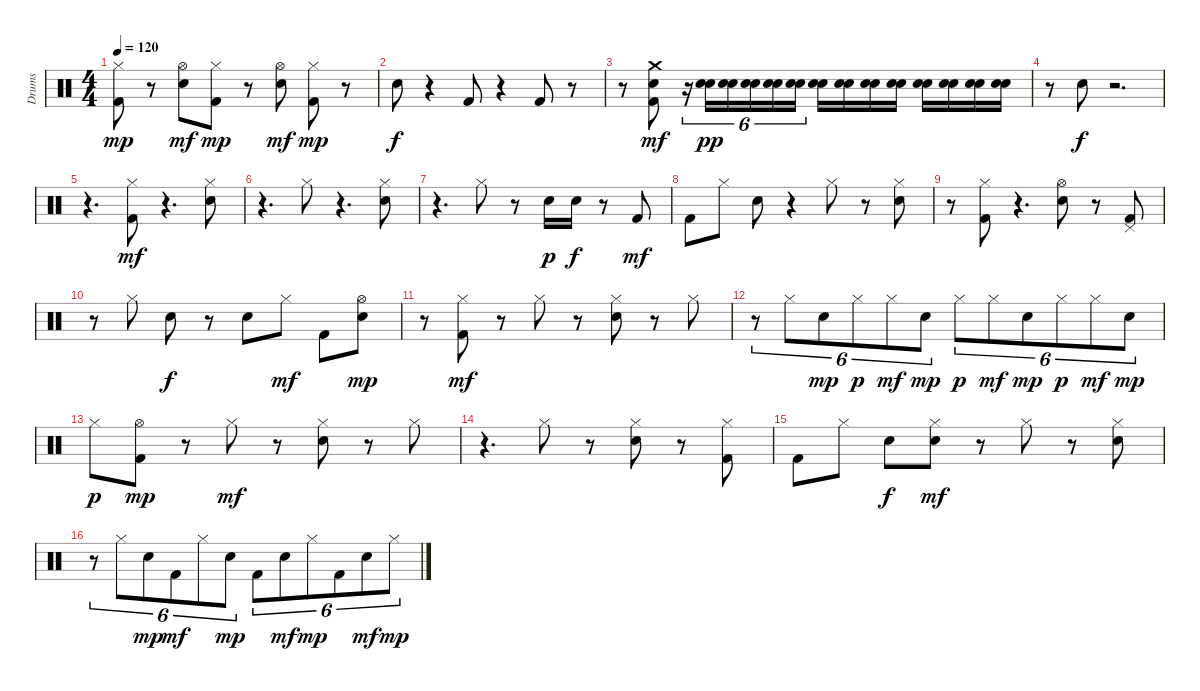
\track ("Drums" "Drums") {instrument percussion}
\staff {score}
\articulation defaults
\ts (4 4)
\tempo 120
\clef neutral
\ks c
("Kick (hit) 2" "Hi-Hat (closed)").8{dy mp} r.8 ("Electric Snare (hit)" "Hi-Hat (open)").8{dy mf} ("Kick (hit) 2" "Hi-Hat (closed)").8{dy mp} r.8 ("Electric Snare (hit)" "Hi-Hat (open)").8{dy mf} ("Kick (hit) 2" "Hi-Hat (closed)").8{dy mp} r.8 |
"Electric Snare (hit)".8{dy f} r.4 "Kick (hit) 2".8 r.4 "Kick (hit) 2".8 r.8 |
r.8 ("Kick (hit) 2" "Electric Snare (hit)" "Crash medium (hit)").8{dy mf} r.16{tu (6 4)} ("Snare (hit) 2" "Electric Snare (hit)").16{tu (6 4) dy pp} ("Snare (hit) 2" "Electric Snare (hit)").16{tu (6 4)} ("Snare (hit) 2" "Electric Snare (hit)").16{tu (6 4)} ("Snare (hit) 2" "Electric Snare (hit)").16{tu (6 4)} ("Snare (hit) 2" "Electric Snare (hit)").16{tu (6 4)} ("Snare (hit) 2" "Electric Snare (hit)").16 ("Snare (hit) 2" "Electric Snare (hit)").16 ("Snare (hit) 2" "Electric Snare (hit)").16 ("Snare (hit) 2" "Electric Snare (hit)").16 ("Snare (hit) 2" "Electric Snare (hit)").16 ("Snare (hit) 2" "Electric Snare (hit)").16 ("Snare (hit) 2" "Electric Snare (hit)").16 ("Snare (hit) 2" "Electric Snare (hit)").16 |
r.8 "Electric Snare (hit)".8{dy f} r.2{d} |
r.4{d} ("Kick (hit) 2" "Hi-Hat (closed)").8{dy mf} r.4{d} ("Electric Snare (hit)" "Hi-Hat (closed)").8 |
r.4{d} "Hi-Hat (closed)".8 r.4{d} ("Electric Snare (hit)" "Hi-Hat (closed)").8 |
r.4{d} "Hi-Hat (closed)".8 r.8 "Electric Snare (hit)".16{dy p} "Electric Snare (hit)".16{dy f} r.8 "Kick (hit) 2".8{dy mf} |
"Kick (hit) 2".8 "Hi-Hat (closed)".8 "Electric Snare (hit)".8 r.4 "Hi-Hat (closed)".8 r.8 ("Electric Snare (hit)" "Hi-Hat (closed)").8 |
r.8 ("Kick (hit) 2" "Hi-Hat (closed)").8 r.4{d} ("Electric Snare (hit)" "Hi-Hat (open)").8 r.8 ("Kick (hit) 2" "Pedal Hi-Hat (hit)").8 |
r.8 "Hi-Hat (closed)".8 "Electric Snare (hit)".8{dy f} r.8 "Electric Snare (hit)".8 "Hi-Hat (closed)".8{dy mf} "Kick (hit) 2".8 ("Electric Snare (hit)" "Hi-Hat (open)").8{dy mp} |
r.8 ("Kick (hit) 2" "Hi-Hat (closed)").8{dy mf} r.8 "Hi-Hat (closed)".8 r.8 ("Electric Snare (hit)" "Hi-Hat (closed)").8 r.8 "Hi-Hat (closed)".8 |
r.8{tu (6 4)} "Hi-Hat (closed)".8{tu (6 4)} "Electric Snare (hit)".8{tu (6 4) dy mp} "Hi-Hat (closed)".8{tu (6 4) dy p} "Hi-Hat (closed)".8{tu (6 4) dy mf} "Electric Snare (hit)".8{tu (6 4) dy mp} "Hi-Hat (closed)".8{tu (6 4) dy p} "Hi-Hat (closed)".8{tu (6 4) dy mf} "Electric Snare (hit)".8{tu (6 4) dy mp} "Hi-Hat (closed)".8{tu (6 4) dy p} "Hi-Hat (closed)".8{tu (6 4) dy mf} "Electric Snare (hit)".8{tu (6 4) dy mp} |
"Hi-Hat (closed)".8{dy p} ("Kick (hit) 2" "Hi-Hat (open)").8{dy mp} r.8 "Hi-Hat (closed)".8{dy mf} r.8 ("Electric Snare (hit)" "Hi-Hat (closed)").8 r.8 "Hi-Hat (closed)".8 |
r.4{d} "Hi-Hat (closed)".8 r.8 ("Electric Snare (hit)" "Hi-Hat (closed)").8 r.8 ("Kick (hit) 2" "Hi-Hat (closed)").8 |
"Kick (hit) 2".8 "Hi-Hat (closed)".8 "Electric Snare (hit)".8{dy f} ("Electric Snare (hit)" "Hi-Hat (closed)").8{dy mf} r.8 "Hi-Hat (closed)".8 r.8 ("Electric Snare (hit)" "Hi-Hat (closed)").8 |
r.8{tu (6 4)} "Hi-Hat (closed)".8{tu (6 4)} "Electric Snare (hit)".8{tu (6 4) dy mp} "Kick (hit) 2".8{tu (6 4) dy mf} "Hi-Hat (closed)".8{tu (6 4)} "Electric Snare (hit)".8{tu (6 4) dy mp} "Kick (hit) 2".8{tu (6 4)} "Electric Snare (hit)".8{tu (6 4) dy mf} "Hi-Hat (closed)".8{tu (6 4) dy mp} "Kick (hit) 2".8{tu (6 4)} "Electric Snare (hit)".8{tu (6 4) dy mf} "Hi-Hat (closed)".8{tu (6 4) dy mp}
